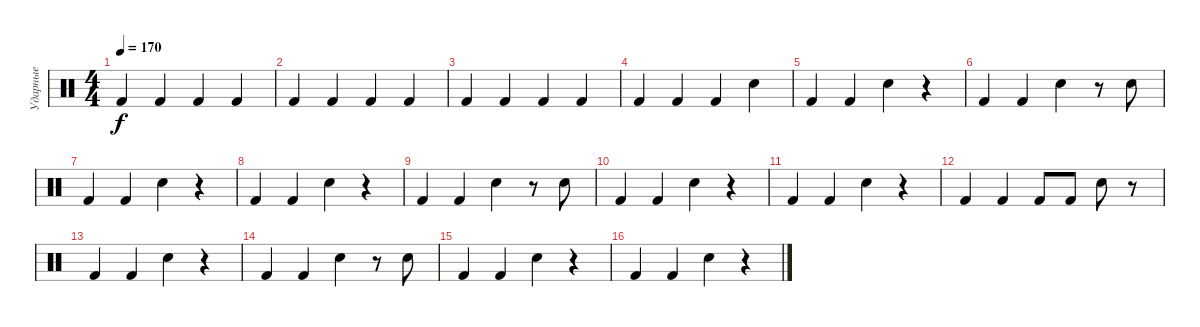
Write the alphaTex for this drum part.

\track ("Ударные" "Ударные") {instrument percussion}
\staff {score}
\articulation defaults
\ts (4 4)
\tempo 170
\clef neutral
\ks c "Kick (hit) 2".4{dy f} "Kick (hit) 2".4 "Kick (hit) 2".4 "Kick (hit) 2".4
|
"Kick (hit) 2".4 "Kick (hit) 2".4 "Kick (hit) 2".4 "Kick (hit) 2".4 |
"Kick (hit) 2".4 "Kick (hit) 2".4 "Kick (hit) 2".4 "Kick (hit) 2".4 |
"Kick (hit) 2".4 "Kick (hit) 2".4 "Kick (hit) 2".4 "Snare (hit) 2".4 |
"Kick (hit) 2".4 "Kick (hit) 2".4 "Snare (hit) 2".4 r.4 |
"Kick (hit) 2".4 "Kick (hit) 2".4 "Snare (hit) 2".4 r.8 "Snare (hit) 2".8 |
"Kick (hit) 2".4 "Kick (hit) 2".4 "Snare (hit) 2".4 r.4 |
"Kick (hit) 2".4 "Kick (hit) 2".4 "Snare (hit) 2".4 r.4 |
"Kick (hit) 2".4 "Kick (hit) 2".4 "Snare (hit) 2".4 r.8 "Snare (hit) 2".8 |
"Kick (hit) 2".4 "Kick (hit) 2".4 "Snare (hit) 2".4 r.4 |
"Kick (hit) 2".4 "Kick (hit) 2".4 "Snare (hit) 2".4 r.4 |
"Kick (hit) 2".4 "Kick (hit) 2".4 "Kick (hit) 2".8 "Kick (hit) 2".8 "Snare (hit) 2".8 r.8 |
"Kick (hit) 2".4 "Kick (hit) 2".4 "Snare (hit) 2".4 r.4 |
"Kick (hit) 2".4 "Kick (hit) 2".4 "Snare (hit) 2".4 r.8 "Snare (hit) 2".8 |
"Kick (hit) 2".4 "Kick (hit) 2".4 "Snare (hit) 2".4 r.4 |
"Kick (hit) 2".4 "Kick (hit) 2".4 "Snare (hit) 2".4 r.4
